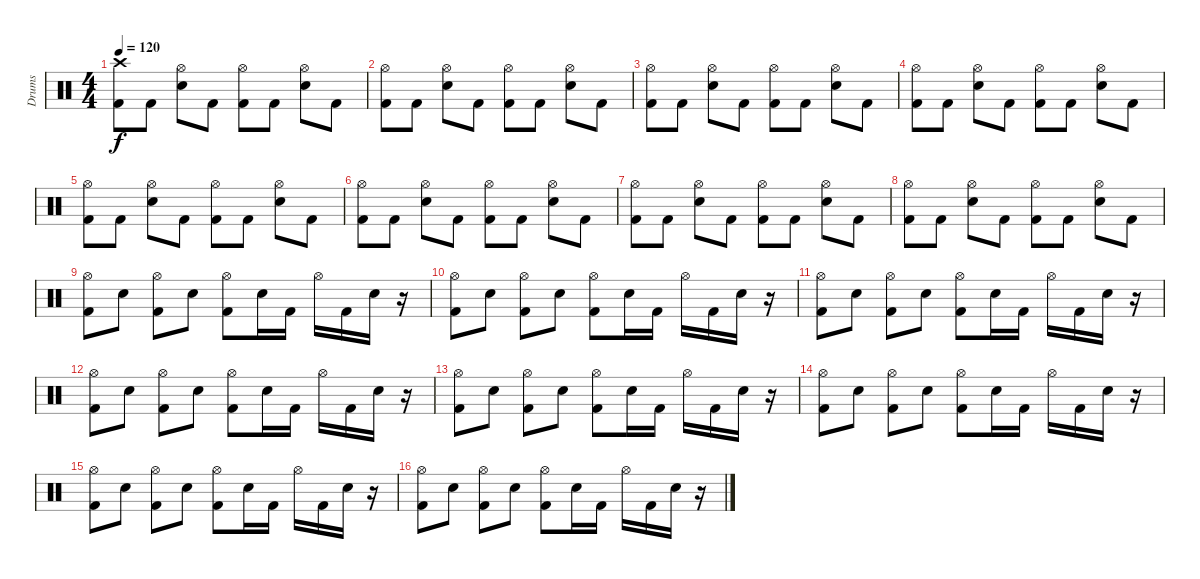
\track ("Drums" "Drums") {instrument percussion}
\staff {score}
\articulation defaults
\ts (4 4)
\tempo 120
\clef neutral
\ks c
("Crash high (hit)" "Kick (hit) 2").8{dy f} "Kick (hit) 2".8 ("Hi-Hat (open)" "Snare (hit) 2").8 "Kick (hit) 2".8 ("Hi-Hat (open)" "Kick (hit) 2").8 "Kick (hit) 2".8 ("Hi-Hat (open)" "Snare (hit) 2").8 "Kick (hit) 2".8 |
("Hi-Hat (open)" "Kick (hit) 2").8 "Kick (hit) 2".8 ("Hi-Hat (open)" "Snare (hit) 2").8 "Kick (hit) 2".8 ("Hi-Hat (open)" "Kick (hit) 2").8 "Kick (hit) 2".8 ("Hi-Hat (open)" "Snare (hit) 2").8 "Kick (hit) 2".8 |
("Hi-Hat (open)" "Kick (hit) 2").8 "Kick (hit) 2".8 ("Hi-Hat (open)" "Snare (hit) 2").8 "Kick (hit) 2".8 ("Hi-Hat (open)" "Kick (hit) 2").8 "Kick (hit) 2".8 ("Hi-Hat (open)" "Snare (hit) 2").8 "Kick (hit) 2".8 |
("Hi-Hat (open)" "Kick (hit) 2").8 "Kick (hit) 2".8 ("Hi-Hat (open)" "Snare (hit) 2").8 "Kick (hit) 2".8 ("Hi-Hat (open)" "Kick (hit) 2").8 "Kick (hit) 2".8 ("Hi-Hat (open)" "Snare (hit) 2").8 "Kick (hit) 2".8 |
("Hi-Hat (open)" "Kick (hit) 2").8 "Kick (hit) 2".8 ("Hi-Hat (open)" "Snare (hit) 2").8 "Kick (hit) 2".8 ("Hi-Hat (open)" "Kick (hit) 2").8 "Kick (hit) 2".8 ("Hi-Hat (open)" "Snare (hit) 2").8 "Kick (hit) 2".8 |
("Hi-Hat (open)" "Kick (hit) 2").8 "Kick (hit) 2".8 ("Hi-Hat (open)" "Snare (hit) 2").8 "Kick (hit) 2".8 ("Hi-Hat (open)" "Kick (hit) 2").8 "Kick (hit) 2".8 ("Hi-Hat (open)" "Snare (hit) 2").8 "Kick (hit) 2".8 |
("Hi-Hat (open)" "Kick (hit) 2").8 "Kick (hit) 2".8 ("Hi-Hat (open)" "Snare (hit) 2").8 "Kick (hit) 2".8 ("Hi-Hat (open)" "Kick (hit) 2").8 "Kick (hit) 2".8 ("Hi-Hat (open)" "Snare (hit) 2").8 "Kick (hit) 2".8 |
("Hi-Hat (open)" "Kick (hit) 2").8 "Kick (hit) 2".8 ("Hi-Hat (open)" "Snare (hit) 2").8 "Kick (hit) 2".8 ("Hi-Hat (open)" "Kick (hit) 2").8 "Kick (hit) 2".8 ("Hi-Hat (open)" "Snare (hit) 2").8 "Kick (hit) 2".8 |
("Hi-Hat (open)" "Kick (hit) 2").8 "Snare (hit) 2".8 ("Hi-Hat (open)" "Kick (hit) 2").8 "Snare (hit) 2".8 ("Hi-Hat (open)" "Kick (hit) 2").8 "Snare (hit) 2".16 "Kick (hit) 2".16 "Hi-Hat (open)".16 "Kick (hit) 2".16 "Snare (hit) 2".16 r.16 |
("Hi-Hat (open)" "Kick (hit) 2").8 "Snare (hit) 2".8 ("Hi-Hat (open)" "Kick (hit) 2").8 "Snare (hit) 2".8 ("Hi-Hat (open)" "Kick (hit) 2").8 "Snare (hit) 2".16 "Kick (hit) 2".16 "Hi-Hat (open)".16 "Kick (hit) 2".16 "Snare (hit) 2".16 r.16 |
("Hi-Hat (open)" "Kick (hit) 2").8 "Snare (hit) 2".8 ("Hi-Hat (open)" "Kick (hit) 2").8 "Snare (hit) 2".8 ("Hi-Hat (open)" "Kick (hit) 2").8 "Snare (hit) 2".16 "Kick (hit) 2".16 "Hi-Hat (open)".16 "Kick (hit) 2".16 "Snare (hit) 2".16 r.16 |
("Hi-Hat (open)" "Kick (hit) 2").8 "Snare (hit) 2".8 ("Hi-Hat (open)" "Kick (hit) 2").8 "Snare (hit) 2".8 ("Hi-Hat (open)" "Kick (hit) 2").8 "Snare (hit) 2".16 "Kick (hit) 2".16 "Hi-Hat (open)".16 "Kick (hit) 2".16 "Snare (hit) 2".16 r.16 |
("Hi-Hat (open)" "Kick (hit) 2").8 "Snare (hit) 2".8 ("Hi-Hat (open)" "Kick (hit) 2").8 "Snare (hit) 2".8 ("Hi-Hat (open)" "Kick (hit) 2").8 "Snare (hit) 2".16 "Kick (hit) 2".16 "Hi-Hat (open)".16 "Kick (hit) 2".16 "Snare (hit) 2".16 r.16 |
("Hi-Hat (open)" "Kick (hit) 2").8 "Snare (hit) 2".8 ("Hi-Hat (open)" "Kick (hit) 2").8 "Snare (hit) 2".8 ("Hi-Hat (open)" "Kick (hit) 2").8 "Snare (hit) 2".16 "Kick (hit) 2".16 "Hi-Hat (open)".16 "Kick (hit) 2".16 "Snare (hit) 2".16 r.16 |
("Hi-Hat (open)" "Kick (hit) 2").8 "Snare (hit) 2".8 ("Hi-Hat (open)" "Kick (hit) 2").8 "Snare (hit) 2".8 ("Hi-Hat (open)" "Kick (hit) 2").8 "Snare (hit) 2".16 "Kick (hit) 2".16 "Hi-Hat (open)".16 "Kick (hit) 2".16 "Snare (hit) 2".16 r.16 |
("Hi-Hat (open)" "Kick (hit) 2").8 "Snare (hit) 2".8 ("Hi-Hat (open)" "Kick (hit) 2").8 "Snare (hit) 2".8 ("Hi-Hat (open)" "Kick (hit) 2").8 "Snare (hit) 2".16 "Kick (hit) 2".16 "Hi-Hat (open)".16 "Kick (hit) 2".16 "Snare (hit) 2".16 r.16
